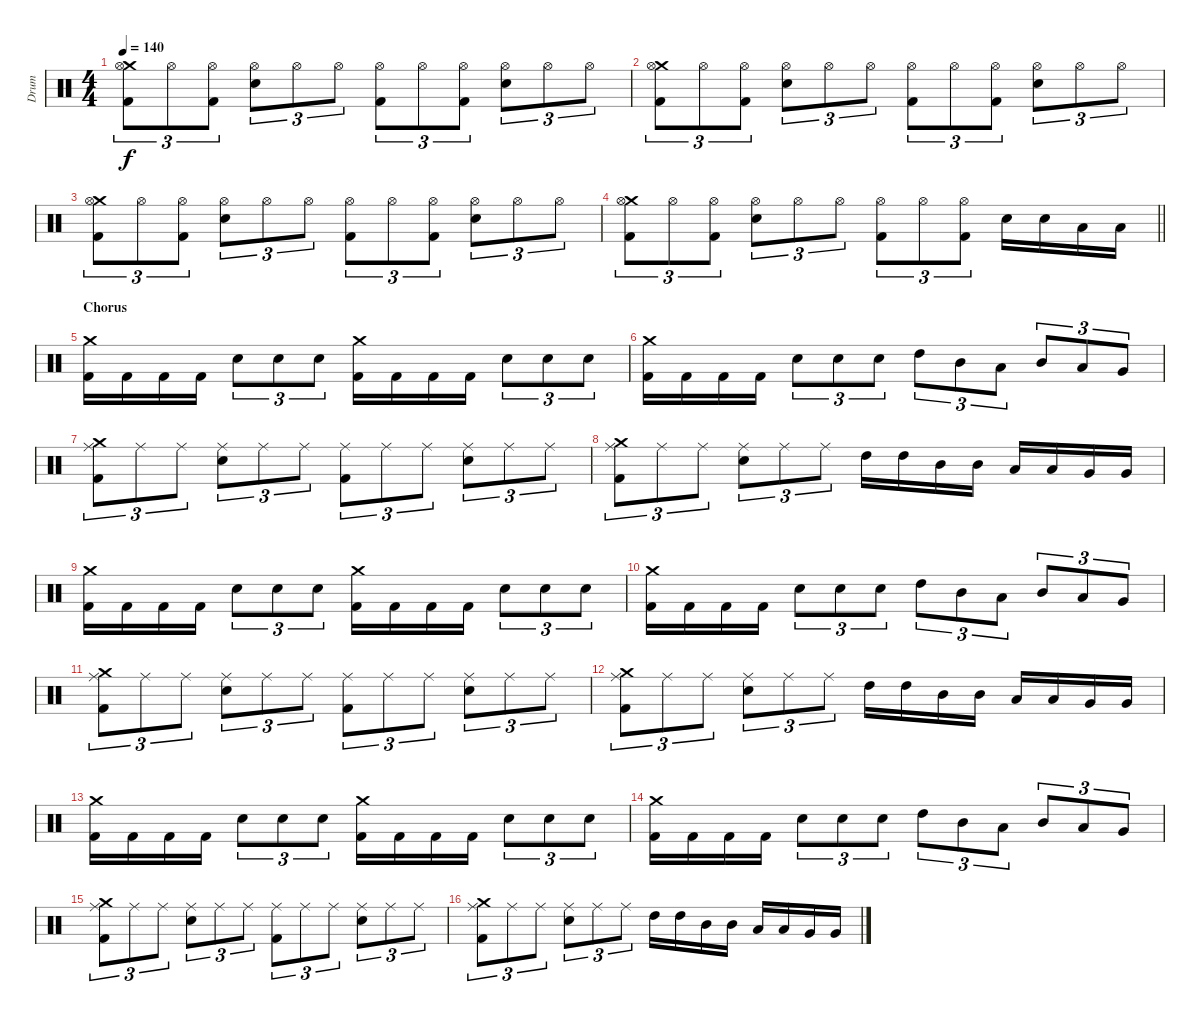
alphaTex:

\track ("Drum" "Drum") {instrument percussion}
\staff {score}
\articulation defaults
\ts (4 4)
\tempo 140
\clef neutral
\ks c
("Crash medium (hit)" "Hi-Hat (open)" "Kick (hit) 2").8{tu (3 2) dy f} "Hi-Hat (open)".8{tu (3 2)} ("Hi-Hat (open)" "Kick (hit) 2").8{tu (3 2)} ("Hi-Hat (open)" "Electric Snare (hit)").8{tu (3 2)} "Hi-Hat (open)".8{tu (3 2)} "Hi-Hat (open)".8{tu (3 2)} ("Hi-Hat (open)" "Kick (hit) 2").8{tu (3 2)} "Hi-Hat (open)".8{tu (3 2)} ("Hi-Hat (open)" "Kick (hit) 2").8{tu (3 2)} ("Hi-Hat (open)" "Electric Snare (hit)").8{tu (3 2)} "Hi-Hat (open)".8{tu (3 2)} "Hi-Hat (open)".8{tu (3 2)} |
("Crash medium (hit)" "Hi-Hat (open)" "Kick (hit) 2").8{tu (3 2)} "Hi-Hat (open)".8{tu (3 2)} ("Hi-Hat (open)" "Kick (hit) 2").8{tu (3 2)} ("Hi-Hat (open)" "Electric Snare (hit)").8{tu (3 2)} "Hi-Hat (open)".8{tu (3 2)} "Hi-Hat (open)".8{tu (3 2)} ("Hi-Hat (open)" "Kick (hit) 2").8{tu (3 2)} "Hi-Hat (open)".8{tu (3 2)} ("Hi-Hat (open)" "Kick (hit) 2").8{tu (3 2)} ("Hi-Hat (open)" "Electric Snare (hit)").8{tu (3 2)} "Hi-Hat (open)".8{tu (3 2)} "Hi-Hat (open)".8{tu (3 2)} |
("Crash medium (hit)" "Hi-Hat (open)" "Kick (hit) 2").8{tu (3 2)} "Hi-Hat (open)".8{tu (3 2)} ("Hi-Hat (open)" "Kick (hit) 2").8{tu (3 2)} ("Hi-Hat (open)" "Electric Snare (hit)").8{tu (3 2)} "Hi-Hat (open)".8{tu (3 2)} "Hi-Hat (open)".8{tu (3 2)} ("Hi-Hat (open)" "Kick (hit) 2").8{tu (3 2)} "Hi-Hat (open)".8{tu (3 2)} ("Hi-Hat (open)" "Kick (hit) 2").8{tu (3 2)} ("Hi-Hat (open)" "Electric Snare (hit)").8{tu (3 2)} "Hi-Hat (open)".8{tu (3 2)} "Hi-Hat (open)".8{tu (3 2)} |
\barLineRight lightlight
("Crash medium (hit)" "Hi-Hat (open)" "Kick (hit) 2").8{tu (3 2)} "Hi-Hat (open)".8{tu (3 2)} ("Hi-Hat (open)" "Kick (hit) 2").8{tu (3 2)} ("Hi-Hat (open)" "Electric Snare (hit)").8{tu (3 2)} "Hi-Hat (open)".8{tu (3 2)} "Hi-Hat (open)".8{tu (3 2)} ("Hi-Hat (open)" "Kick (hit) 2").8{tu (3 2)} "Hi-Hat (open)".8{tu (3 2)} ("Hi-Hat (open)" "Kick (hit) 2").8{tu (3 2)} "Electric Snare (hit)".16 "Electric Snare (hit)".16 "Low Tom (hit)".16 "Low Tom (hit)".16 |
\section ("" "Chorus")
("Crash medium (hit)" "Kick (hit) 2").16 "Kick (hit) 2".16 "Kick (hit) 2".16 "Kick (hit) 2".16 "Electric Snare (hit)".8{tu (3 2)} "Electric Snare (hit)".8{tu (3 2)} "Electric Snare (hit)".8{tu (3 2)} ("Crash medium (hit)" "Kick (hit) 2").16 "Kick (hit) 2".16 "Kick (hit) 2".16 "Kick (hit) 2".16 "Electric Snare (hit)".8{tu (3 2)} "Electric Snare (hit)".8{tu (3 2)} "Electric Snare (hit)".8{tu (3 2)} |
("Crash medium (hit)" "Kick (hit) 2").16 "Kick (hit) 2".16 "Kick (hit) 2".16 "Kick (hit) 2".16 "Electric Snare (hit)".8{tu (3 2)} "Electric Snare (hit)".8{tu (3 2)} "Electric Snare (hit)".8{tu (3 2)} "High Tom (hit)".8{tu (3 2)} "Mid Tom (hit)".8{tu (3 2)} "Low Tom (hit)".8{tu (3 2)} "Mid Tom (hit)".8{tu (3 2)} "Low Tom (hit)".8{tu (3 2)} "Very Low Tom (hit)".8{tu (3 2)} |
("Crash medium (hit)" "Ride (middle)" "Kick (hit) 2").8{tu (3 2)} "Ride (middle)".8{tu (3 2)} "Ride (middle)".8{tu (3 2)} ("Ride (middle)" "Electric Snare (hit)").8{tu (3 2)} "Ride (middle)".8{tu (3 2)} "Ride (middle)".8{tu (3 2)} ("Ride (middle)" "Kick (hit) 2").8{tu (3 2)} "Ride (middle)".8{tu (3 2)} "Ride (middle)".8{tu (3 2)} ("Ride (middle)" "Electric Snare (hit)").8{tu (3 2)} "Ride (middle)".8{tu (3 2)} "Ride (middle)".8{tu (3 2)} |
("Crash medium (hit)" "Ride (middle)" "Kick (hit) 2").8{tu (3 2)} "Ride (middle)".8{tu (3 2)} "Ride (middle)".8{tu (3 2)} ("Ride (middle)" "Electric Snare (hit)").8{tu (3 2)} "Ride (middle)".8{tu (3 2)} "Ride (middle)".8{tu (3 2)} "High Tom (hit)".16 "High Tom (hit)".16 "Mid Tom (hit)".16 "Mid Tom (hit)".16 "Low Tom (hit)".16 "Low Tom (hit)".16 "Very Low Tom (hit)".16 "Very Low Tom (hit)".16 |
("Crash medium (hit)" "Kick (hit) 2").16 "Kick (hit) 2".16 "Kick (hit) 2".16 "Kick (hit) 2".16 "Electric Snare (hit)".8{tu (3 2)} "Electric Snare (hit)".8{tu (3 2)} "Electric Snare (hit)".8{tu (3 2)} ("Crash medium (hit)" "Kick (hit) 2").16 "Kick (hit) 2".16 "Kick (hit) 2".16 "Kick (hit) 2".16 "Electric Snare (hit)".8{tu (3 2)} "Electric Snare (hit)".8{tu (3 2)} "Electric Snare (hit)".8{tu (3 2)} |
("Crash medium (hit)" "Kick (hit) 2").16 "Kick (hit) 2".16 "Kick (hit) 2".16 "Kick (hit) 2".16 "Electric Snare (hit)".8{tu (3 2)} "Electric Snare (hit)".8{tu (3 2)} "Electric Snare (hit)".8{tu (3 2)} "High Tom (hit)".8{tu (3 2)} "Mid Tom (hit)".8{tu (3 2)} "Low Tom (hit)".8{tu (3 2)} "Mid Tom (hit)".8{tu (3 2)} "Low Tom (hit)".8{tu (3 2)} "Very Low Tom (hit)".8{tu (3 2)} |
("Crash medium (hit)" "Ride (middle)" "Kick (hit) 2").8{tu (3 2)} "Ride (middle)".8{tu (3 2)} "Ride (middle)".8{tu (3 2)} ("Ride (middle)" "Electric Snare (hit)").8{tu (3 2)} "Ride (middle)".8{tu (3 2)} "Ride (middle)".8{tu (3 2)} ("Ride (middle)" "Kick (hit) 2").8{tu (3 2)} "Ride (middle)".8{tu (3 2)} "Ride (middle)".8{tu (3 2)} ("Ride (middle)" "Electric Snare (hit)").8{tu (3 2)} "Ride (middle)".8{tu (3 2)} "Ride (middle)".8{tu (3 2)} |
("Crash medium (hit)" "Ride (middle)" "Kick (hit) 2").8{tu (3 2)} "Ride (middle)".8{tu (3 2)} "Ride (middle)".8{tu (3 2)} ("Ride (middle)" "Electric Snare (hit)").8{tu (3 2)} "Ride (middle)".8{tu (3 2)} "Ride (middle)".8{tu (3 2)} "High Tom (hit)".16 "High Tom (hit)".16 "Mid Tom (hit)".16 "Mid Tom (hit)".16 "Low Tom (hit)".16 "Low Tom (hit)".16 "Very Low Tom (hit)".16 "Very Low Tom (hit)".16 |
("Crash medium (hit)" "Kick (hit) 2").16 "Kick (hit) 2".16 "Kick (hit) 2".16 "Kick (hit) 2".16 "Electric Snare (hit)".8{tu (3 2)} "Electric Snare (hit)".8{tu (3 2)} "Electric Snare (hit)".8{tu (3 2)} ("Crash medium (hit)" "Kick (hit) 2").16 "Kick (hit) 2".16 "Kick (hit) 2".16 "Kick (hit) 2".16 "Electric Snare (hit)".8{tu (3 2)} "Electric Snare (hit)".8{tu (3 2)} "Electric Snare (hit)".8{tu (3 2)} |
("Crash medium (hit)" "Kick (hit) 2").16 "Kick (hit) 2".16 "Kick (hit) 2".16 "Kick (hit) 2".16 "Electric Snare (hit)".8{tu (3 2)} "Electric Snare (hit)".8{tu (3 2)} "Electric Snare (hit)".8{tu (3 2)} "High Tom (hit)".8{tu (3 2)} "Mid Tom (hit)".8{tu (3 2)} "Low Tom (hit)".8{tu (3 2)} "Mid Tom (hit)".8{tu (3 2)} "Low Tom (hit)".8{tu (3 2)} "Very Low Tom (hit)".8{tu (3 2)} |
("Crash medium (hit)" "Ride (middle)" "Kick (hit) 2").8{tu (3 2)} "Ride (middle)".8{tu (3 2)} "Ride (middle)".8{tu (3 2)} ("Ride (middle)" "Electric Snare (hit)").8{tu (3 2)} "Ride (middle)".8{tu (3 2)} "Ride (middle)".8{tu (3 2)} ("Ride (middle)" "Kick (hit) 2").8{tu (3 2)} "Ride (middle)".8{tu (3 2)} "Ride (middle)".8{tu (3 2)} ("Ride (middle)" "Electric Snare (hit)").8{tu (3 2)} "Ride (middle)".8{tu (3 2)} "Ride (middle)".8{tu (3 2)} |
("Crash medium (hit)" "Ride (middle)" "Kick (hit) 2").8{tu (3 2)} "Ride (middle)".8{tu (3 2)} "Ride (middle)".8{tu (3 2)} ("Ride (middle)" "Electric Snare (hit)").8{tu (3 2)} "Ride (middle)".8{tu (3 2)} "Ride (middle)".8{tu (3 2)} "High Tom (hit)".16 "High Tom (hit)".16 "Mid Tom (hit)".16 "Mid Tom (hit)".16 "Low Tom (hit)".16 "Low Tom (hit)".16 "Very Low Tom (hit)".16 "Very Low Tom (hit)".16
